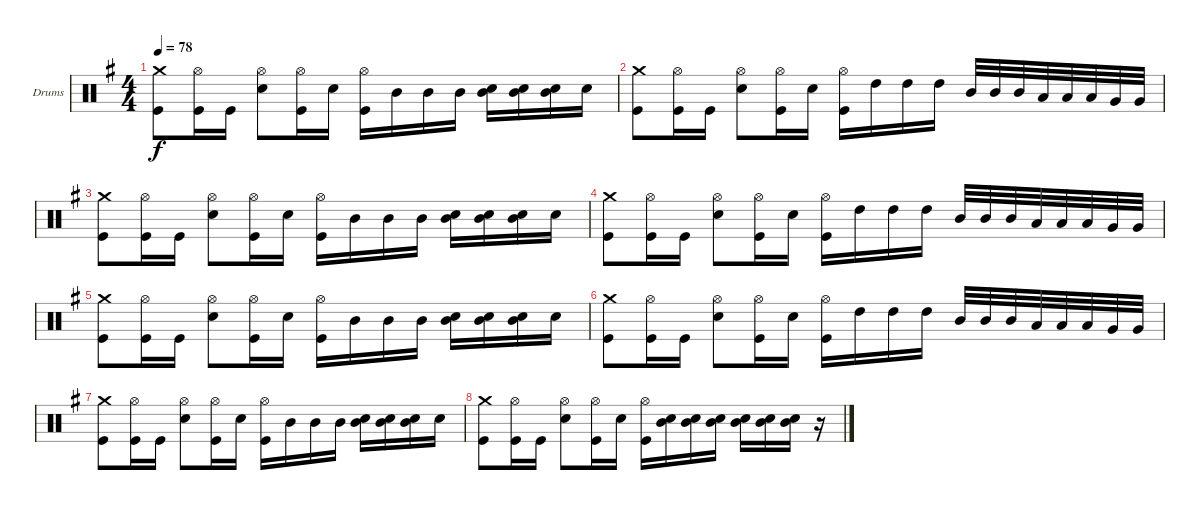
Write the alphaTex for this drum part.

\defaultSystemsLayout 4
\bracketExtendMode groupsimilarinstruments
\firstSystemTrackNameOrientation horizontal
\otherSystemsTrackNameOrientation horizontal
\track ("Drumkit" "Drums") {instrument percussion}
\staff {score}
\articulation defaults
\ts (4 4)
\tempo 78
\clef neutral
\ks g
("Crash medium (hit)" "Kick (hit)").8{dy f} ("Hi-Hat (open)" "Kick (hit)").16 "Kick (hit)".16 ("Hi-Hat (open)" "Snare (hit) 2").8 ("Hi-Hat (open)" "Kick (hit)").16 "Snare (hit) 2".16 ("Hi-Hat (open)" "Kick (hit)").16 "Mid Tom (hit)".16 "Mid Tom (hit)".16 "Mid Tom (hit)".16 ("Snare (hit) 2" "Mid Tom (hit)").16 ("Snare (hit) 2" "Mid Tom (hit)").16 ("Snare (hit) 2" "Mid Tom (hit)").16 "Snare (hit) 2".16 |
("Crash medium (hit)" "Kick (hit)").8 ("Hi-Hat (open)" "Kick (hit)").16 "Kick (hit)".16 ("Hi-Hat (open)" "Snare (hit) 2").8 ("Hi-Hat (open)" "Kick (hit)").16 "Snare (hit) 2".16 ("Hi-Hat (open)" "Kick (hit)").16 "High Tom (hit)".16 "High Tom (hit)".16 "High Tom (hit)".16 "Mid Tom (hit)".32 "Mid Tom (hit)".32 "Mid Tom (hit)".32 "Low Tom (hit)".32 "Low Tom (hit)".32 "Low Tom (hit)".32 "Very Low Tom (hit)".32 "Very Low Tom (hit)".32 |
("Crash medium (hit)" "Kick (hit)").8 ("Hi-Hat (open)" "Kick (hit)").16 "Kick (hit)".16 ("Hi-Hat (open)" "Snare (hit) 2").8 ("Hi-Hat (open)" "Kick (hit)").16 "Snare (hit) 2".16 ("Hi-Hat (open)" "Kick (hit)").16 "Mid Tom (hit)".16 "Mid Tom (hit)".16 "Mid Tom (hit)".16 ("Snare (hit) 2" "Mid Tom (hit)").16 ("Snare (hit) 2" "Mid Tom (hit)").16 ("Snare (hit) 2" "Mid Tom (hit)").16 "Snare (hit) 2".16 |
("Crash medium (hit)" "Kick (hit)").8 ("Hi-Hat (open)" "Kick (hit)").16 "Kick (hit)".16 ("Hi-Hat (open)" "Snare (hit) 2").8 ("Hi-Hat (open)" "Kick (hit)").16 "Snare (hit) 2".16 ("Hi-Hat (open)" "Kick (hit)").16 "High Tom (hit)".16 "High Tom (hit)".16 "High Tom (hit)".16 "Mid Tom (hit)".32 "Mid Tom (hit)".32 "Mid Tom (hit)".32 "Low Tom (hit)".32 "Low Tom (hit)".32 "Low Tom (hit)".32 "Very Low Tom (hit)".32 "Very Low Tom (hit)".32 |
("Crash medium (hit)" "Kick (hit)").8 ("Hi-Hat (open)" "Kick (hit)").16 "Kick (hit)".16 ("Hi-Hat (open)" "Snare (hit) 2").8 ("Hi-Hat (open)" "Kick (hit)").16 "Snare (hit) 2".16 ("Hi-Hat (open)" "Kick (hit)").16 "Mid Tom (hit)".16 "Mid Tom (hit)".16 "Mid Tom (hit)".16 ("Snare (hit) 2" "Mid Tom (hit)").16 ("Snare (hit) 2" "Mid Tom (hit)").16 ("Snare (hit) 2" "Mid Tom (hit)").16 "Snare (hit) 2".16 |
("Crash medium (hit)" "Kick (hit)").8 ("Hi-Hat (open)" "Kick (hit)").16 "Kick (hit)".16 ("Hi-Hat (open)" "Snare (hit) 2").8 ("Hi-Hat (open)" "Kick (hit)").16 "Snare (hit) 2".16 ("Hi-Hat (open)" "Kick (hit)").16 "High Tom (hit)".16 "High Tom (hit)".16 "High Tom (hit)".16 "Mid Tom (hit)".32 "Mid Tom (hit)".32 "Mid Tom (hit)".32 "Low Tom (hit)".32 "Low Tom (hit)".32 "Low Tom (hit)".32 "Very Low Tom (hit)".32 "Very Low Tom (hit)".32 |
("Crash medium (hit)" "Kick (hit)").8 ("Hi-Hat (open)" "Kick (hit)").16 "Kick (hit)".16 ("Hi-Hat (open)" "Snare (hit) 2").8 ("Hi-Hat (open)" "Kick (hit)").16 "Snare (hit) 2".16 ("Hi-Hat (open)" "Kick (hit)").16 "Mid Tom (hit)".16 "Mid Tom (hit)".16 "Mid Tom (hit)".16 ("Snare (hit) 2" "Mid Tom (hit)").16 ("Snare (hit) 2" "Mid Tom (hit)").16 ("Snare (hit) 2" "Mid Tom (hit)").16 "Snare (hit) 2".16 |
("Crash medium (hit)" "Kick (hit)").8 ("Hi-Hat (open)" "Kick (hit)").16 "Kick (hit)".16 ("Hi-Hat (open)" "Snare (hit) 2").8 ("Hi-Hat (open)" "Kick (hit)").16 "Snare (hit) 2".16 ("Hi-Hat (open)" "Kick (hit)").16 ("Snare (hit) 2" "Mid Tom (hit)").16 ("Snare (hit) 2" "Mid Tom (hit)").16 ("Snare (hit) 2" "Mid Tom (hit)").16 ("Snare (hit) 2" "Mid Tom (hit)").16 ("Snare (hit) 2" "Mid Tom (hit)").16 ("Snare (hit) 2" "Mid Tom (hit)").16 r.16
